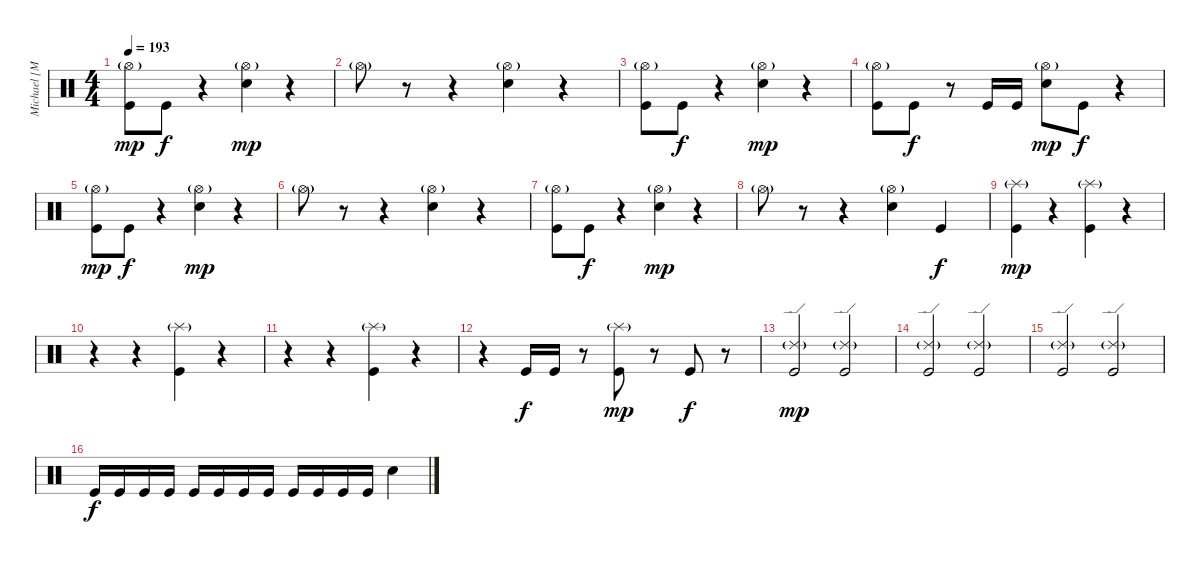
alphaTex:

\track ("Michael [Moose] Thomas" "Michael [M") {instrument percussion}
\staff {score}
\articulation defaults
\ts (4 4)
\tempo 193
\clef neutral
\ks c
("Hi-Hat (open)"{g} "Kick (hit)").8{dy mp} "Kick (hit)".8{dy f} r.4 ("Hi-Hat (open)"{g} "Snare (hit) 2").4{dy mp} r.4 |
"Hi-Hat (open)"{g}.8 r.8 r.4 ("Hi-Hat (open)"{g} "Snare (hit) 2").4 r.4 |
("Hi-Hat (open)"{g} "Kick (hit)").8 "Kick (hit)".8{dy f} r.4 ("Hi-Hat (open)"{g} "Snare (hit) 2").4{dy mp} r.4 |
("Hi-Hat (open)"{g} "Kick (hit)").8 "Kick (hit)".8{dy f} r.8 "Kick (hit)".16 "Kick (hit)".16 ("Hi-Hat (open)"{g} "Snare (hit) 2").8{dy mp} "Kick (hit)".8{dy f} r.4 |
("Hi-Hat (open)"{g} "Kick (hit)").8{dy mp} "Kick (hit)".8{dy f} r.4 ("Hi-Hat (open)"{g} "Snare (hit) 2").4{dy mp} r.4 |
"Hi-Hat (open)"{g}.8 r.8 r.4 ("Hi-Hat (open)"{g} "Snare (hit) 2").4 r.4 |
("Hi-Hat (open)"{g} "Kick (hit)").8 "Kick (hit)".8{dy f} r.4 ("Hi-Hat (open)"{g} "Snare (hit) 2").4{dy mp} r.4 |
"Hi-Hat (open)"{g}.8 r.8 r.4 ("Hi-Hat (open)"{g} "Snare (hit) 2").4 "Kick (hit)".4{dy f} |
("Splash (hit)"{g} "Kick (hit)").4{dy mp} r.4 ("Splash (hit)"{g} "Kick (hit)").4 r.4 |
r.4 r.4 ("Splash (hit)"{g} "Kick (hit)").4 r.4 |
r.4 r.4 ("Splash (hit)"{g} "Kick (hit)").4 r.4 |
r.4 "Kick (hit)".16{dy f} "Kick (hit)".16 r.8 ("Splash (hit)"{g} "Kick (hit)").8{dy mp} r.8 "Kick (hit)".8{dy f} r.8 |
("Ride (edge) 2"{g} "Kick (hit)").2{dy mp} ("Ride (edge) 2"{g} "Kick (hit)").2 |
("Ride (edge) 2"{g} "Kick (hit)").2 ("Ride (edge) 2"{g} "Kick (hit)").2 |
("Ride (edge) 2"{g} "Kick (hit)").2 ("Ride (edge) 2"{g} "Kick (hit)").2 |
"Kick (hit)".16{dy f} "Kick (hit)".16 "Kick (hit)".16 "Kick (hit)".16 "Kick (hit)".16 "Kick (hit)".16 "Kick (hit)".16 "Kick (hit)".16 "Kick (hit)".16 "Kick (hit)".16 "Kick (hit)".16 "Kick (hit)".16 "Snare (hit) 2".4
